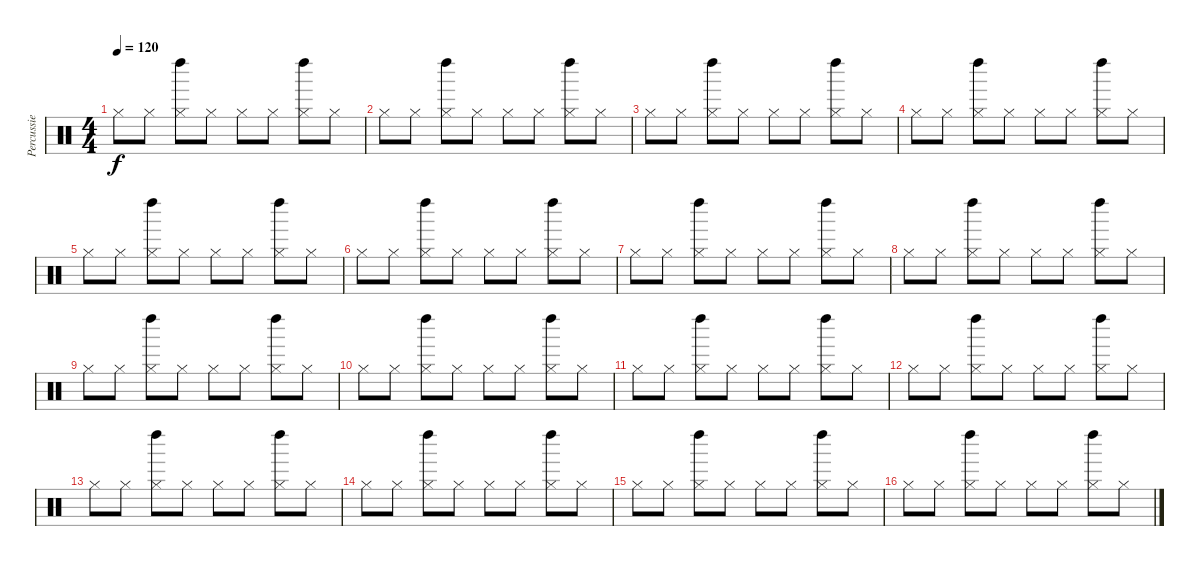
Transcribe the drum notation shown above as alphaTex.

\track ("Percussie" "Percussie") {instrument percussion}
\staff {score}
\articulation defaults
\ts (4 4)
\tempo 120
\clef neutral
\ks c "Hi-Hat (closed)".8{dy f} "Hi-Hat (closed)".8
("Hi-Hat (closed)" "Left Maraca (hit)").8 "Hi-Hat (closed)".8 "Hi-Hat (closed)".8 "Hi-Hat (closed)".8 ("Hi-Hat (closed)" "Left Maraca (hit)").8 "Hi-Hat (closed)".8 |
"Hi-Hat (closed)".8 "Hi-Hat (closed)".8 ("Hi-Hat (closed)" "Left Maraca (hit)").8 "Hi-Hat (closed)".8 "Hi-Hat (closed)".8 "Hi-Hat (closed)".8 ("Hi-Hat (closed)" "Left Maraca (hit)").8 "Hi-Hat (closed)".8 |
"Hi-Hat (closed)".8 "Hi-Hat (closed)".8 ("Hi-Hat (closed)" "Left Maraca (hit)").8 "Hi-Hat (closed)".8 "Hi-Hat (closed)".8 "Hi-Hat (closed)".8 ("Hi-Hat (closed)" "Left Maraca (hit)").8 "Hi-Hat (closed)".8 |
"Hi-Hat (closed)".8 "Hi-Hat (closed)".8 ("Hi-Hat (closed)" "Left Maraca (hit)").8 "Hi-Hat (closed)".8 "Hi-Hat (closed)".8 "Hi-Hat (closed)".8 ("Hi-Hat (closed)" "Left Maraca (hit)").8 "Hi-Hat (closed)".8 |
"Hi-Hat (closed)".8 "Hi-Hat (closed)".8 ("Hi-Hat (closed)" "Left Maraca (hit)").8 "Hi-Hat (closed)".8 "Hi-Hat (closed)".8 "Hi-Hat (closed)".8 ("Hi-Hat (closed)" "Left Maraca (hit)").8 "Hi-Hat (closed)".8 |
"Hi-Hat (closed)".8 "Hi-Hat (closed)".8 ("Hi-Hat (closed)" "Left Maraca (hit)").8 "Hi-Hat (closed)".8 "Hi-Hat (closed)".8 "Hi-Hat (closed)".8 ("Hi-Hat (closed)" "Left Maraca (hit)").8 "Hi-Hat (closed)".8 |
"Hi-Hat (closed)".8 "Hi-Hat (closed)".8 ("Hi-Hat (closed)" "Left Maraca (hit)").8 "Hi-Hat (closed)".8 "Hi-Hat (closed)".8 "Hi-Hat (closed)".8 ("Hi-Hat (closed)" "Left Maraca (hit)").8 "Hi-Hat (closed)".8 |
"Hi-Hat (closed)".8 "Hi-Hat (closed)".8 ("Hi-Hat (closed)" "Left Maraca (hit)").8 "Hi-Hat (closed)".8 "Hi-Hat (closed)".8 "Hi-Hat (closed)".8 ("Hi-Hat (closed)" "Left Maraca (hit)").8 "Hi-Hat (closed)".8 |
"Hi-Hat (closed)".8 "Hi-Hat (closed)".8 ("Hi-Hat (closed)" "Left Maraca (hit)").8 "Hi-Hat (closed)".8 "Hi-Hat (closed)".8 "Hi-Hat (closed)".8 ("Hi-Hat (closed)" "Left Maraca (hit)").8 "Hi-Hat (closed)".8 |
"Hi-Hat (closed)".8 "Hi-Hat (closed)".8 ("Hi-Hat (closed)" "Left Maraca (hit)").8 "Hi-Hat (closed)".8 "Hi-Hat (closed)".8 "Hi-Hat (closed)".8 ("Hi-Hat (closed)" "Left Maraca (hit)").8 "Hi-Hat (closed)".8 |
"Hi-Hat (closed)".8 "Hi-Hat (closed)".8 ("Hi-Hat (closed)" "Left Maraca (hit)").8 "Hi-Hat (closed)".8 "Hi-Hat (closed)".8 "Hi-Hat (closed)".8 ("Hi-Hat (closed)" "Left Maraca (hit)").8 "Hi-Hat (closed)".8 |
"Hi-Hat (closed)".8 "Hi-Hat (closed)".8 ("Hi-Hat (closed)" "Left Maraca (hit)").8 "Hi-Hat (closed)".8 "Hi-Hat (closed)".8 "Hi-Hat (closed)".8 ("Hi-Hat (closed)" "Left Maraca (hit)").8 "Hi-Hat (closed)".8 |
"Hi-Hat (closed)".8 "Hi-Hat (closed)".8 ("Hi-Hat (closed)" "Left Maraca (hit)").8 "Hi-Hat (closed)".8 "Hi-Hat (closed)".8 "Hi-Hat (closed)".8 ("Hi-Hat (closed)" "Left Maraca (hit)").8 "Hi-Hat (closed)".8 |
"Hi-Hat (closed)".8 "Hi-Hat (closed)".8 ("Hi-Hat (closed)" "Left Maraca (hit)").8 "Hi-Hat (closed)".8 "Hi-Hat (closed)".8 "Hi-Hat (closed)".8 ("Hi-Hat (closed)" "Left Maraca (hit)").8 "Hi-Hat (closed)".8 |
"Hi-Hat (closed)".8 "Hi-Hat (closed)".8 ("Hi-Hat (closed)" "Left Maraca (hit)").8 "Hi-Hat (closed)".8 "Hi-Hat (closed)".8 "Hi-Hat (closed)".8 ("Hi-Hat (closed)" "Left Maraca (hit)").8 "Hi-Hat (closed)".8 |
"Hi-Hat (closed)".8 "Hi-Hat (closed)".8 ("Hi-Hat (closed)" "Left Maraca (hit)").8 "Hi-Hat (closed)".8 "Hi-Hat (closed)".8 "Hi-Hat (closed)".8 ("Hi-Hat (closed)" "Left Maraca (hit)").8 "Hi-Hat (closed)".8
